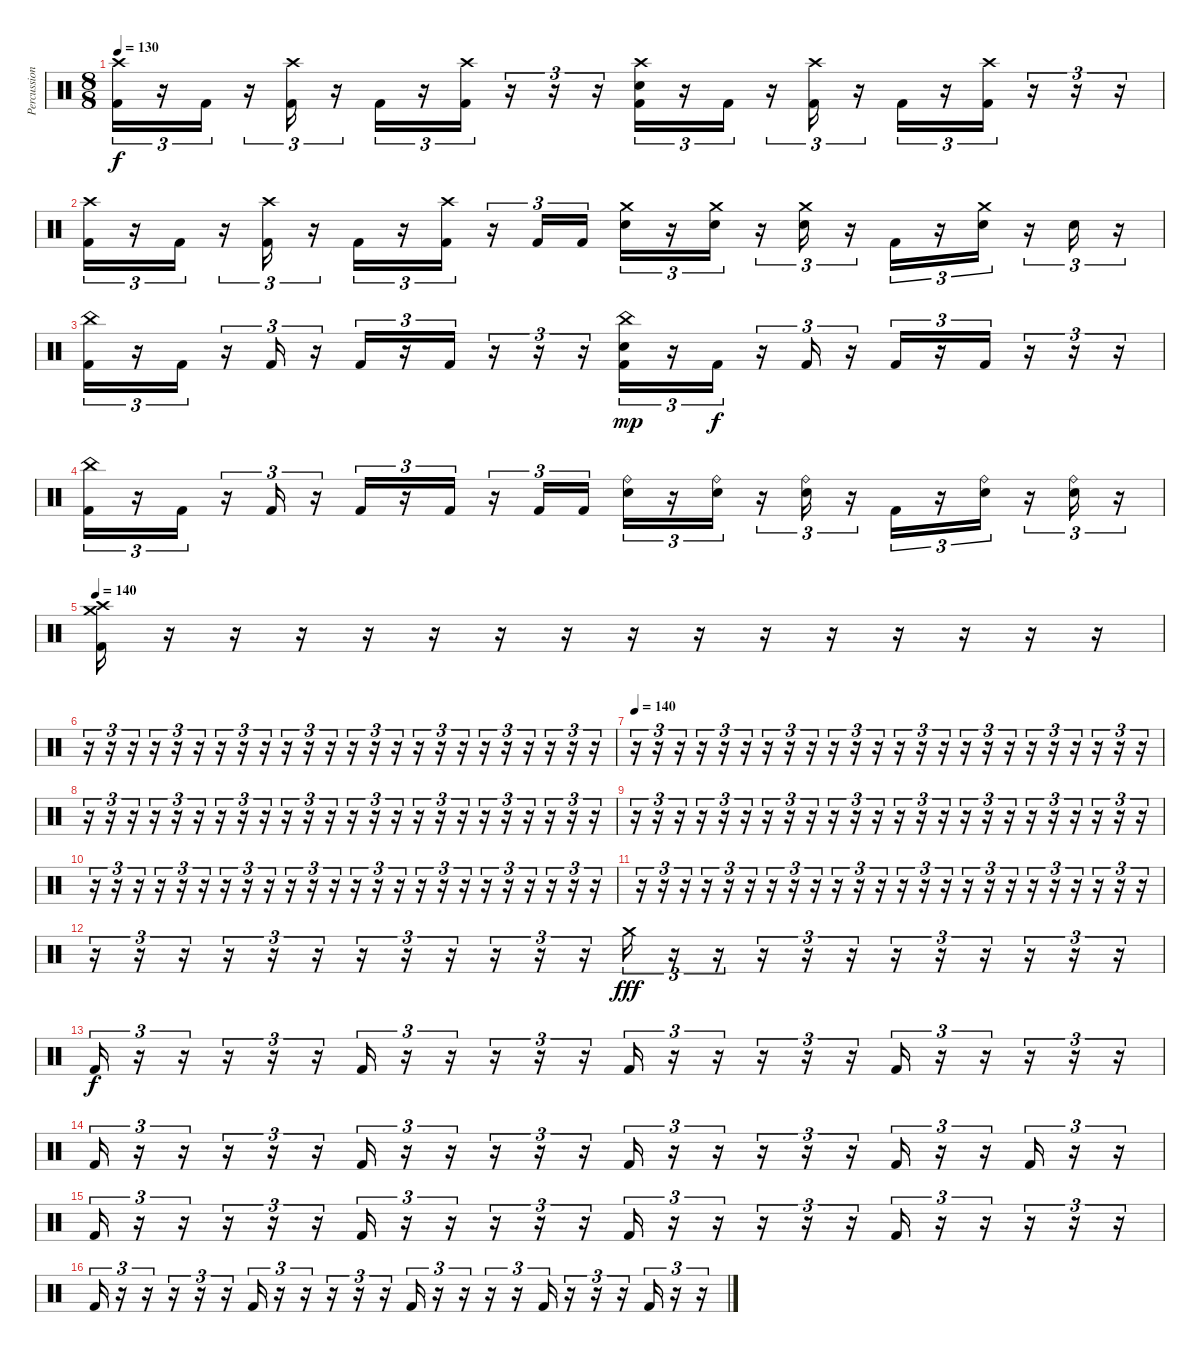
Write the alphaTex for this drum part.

\track ("Percussion" "Percussion") {instrument percussion}
\staff {score}
\articulation defaults
\ts (8 8)
\tempo 130
\clef neutral
\ks c
("Crash high (hit)" "Kick (hit) 2").16{tu (3 2) dy f} r.16{tu (3 2)} "Kick (hit) 2".16{tu (3 2)} r.16{tu (3 2)} ("Crash high (hit)" "Kick (hit) 2").16{tu (3 2)} r.16{tu (3 2)} "Kick (hit) 2".16{tu (3 2)} r.16{tu (3 2)} ("Crash high (hit)" "Kick (hit) 2").16{tu (3 2)} r.16{tu (3 2)} r.16{tu (3 2)} r.16{tu (3 2)} ("Crash high (hit)" "Snare (hit) 2" "Kick (hit) 2").16{tu (3 2)} r.16{tu (3 2)} "Kick (hit) 2".16{tu (3 2)} r.16{tu (3 2)} ("Crash high (hit)" "Kick (hit) 2").16{tu (3 2)} r.16{tu (3 2)} "Kick (hit) 2".16{tu (3 2)} r.16{tu (3 2)} ("Crash high (hit)" "Kick (hit) 2").16{tu (3 2)} r.16{tu (3 2)} r.16{tu (3 2)} r.16{tu (3 2)} |
("Crash high (hit)" "Kick (hit) 2").16{tu (3 2)} r.16{tu (3 2)} "Kick (hit) 2".16{tu (3 2)} r.16{tu (3 2)} ("Crash high (hit)" "Kick (hit) 2").16{tu (3 2)} r.16{tu (3 2)} "Kick (hit) 2".16{tu (3 2)} r.16{tu (3 2)} ("Crash high (hit)" "Kick (hit) 2").16{tu (3 2)} r.16{tu (3 2)} "Kick (hit) 2".16{tu (3 2)} "Kick (hit) 2".16{tu (3 2)} ("Crash medium (hit)" "Snare (hit) 2").16{tu (3 2)} r.16{tu (3 2)} ("Crash medium (hit)" "Snare (hit) 2").16{tu (3 2)} r.16{tu (3 2)} ("Crash medium (hit)" "Snare (hit) 2").16{tu (3 2)} r.16{tu (3 2)} "Kick (hit) 2".16{tu (3 2)} r.16{tu (3 2)} ("Crash medium (hit)" "Snare (hit) 2").16{tu (3 2)} r.16{tu (3 2)} "Snare (hit) 2".16{tu (3 2)} r.16{tu (3 2)} |
("China (hit)" "Kick (hit) 2").16{tu (3 2)} r.16{tu (3 2)} "Kick (hit) 2".16{tu (3 2)} r.16{tu (3 2)} "Kick (hit) 2".16{tu (3 2)} r.16{tu (3 2)} "Kick (hit) 2".16{tu (3 2)} r.16{tu (3 2)} "Kick (hit) 2".16{tu (3 2)} r.16{tu (3 2)} r.16{tu (3 2)} r.16{tu (3 2)} ("China (hit)" "Snare (hit) 2" "Kick (hit) 2").16{tu (3 2) dy mp} r.16{tu (3 2)} "Kick (hit) 2".16{tu (3 2) dy f} r.16{tu (3 2)} "Kick (hit) 2".16{tu (3 2)} r.16{tu (3 2)} "Kick (hit) 2".16{tu (3 2)} r.16{tu (3 2)} "Kick (hit) 2".16{tu (3 2)} r.16{tu (3 2)} r.16{tu (3 2)} r.16{tu (3 2)} |
("China (hit)" "Kick (hit) 2").16{tu (3 2)} r.16{tu (3 2)} "Kick (hit) 2".16{tu (3 2)} r.16{tu (3 2)} "Kick (hit) 2".16{tu (3 2)} r.16{tu (3 2)} "Kick (hit) 2".16{tu (3 2)} r.16{tu (3 2)} "Kick (hit) 2".16{tu (3 2)} r.16{tu (3 2)} "Kick (hit) 2".16{tu (3 2)} "Kick (hit) 2".16{tu (3 2)} ("Ride (bell)" "Snare (hit) 2").16{tu (3 2)} r.16{tu (3 2)} ("Ride (bell)" "Snare (hit) 2").16{tu (3 2)} r.16{tu (3 2)} ("Ride (bell)" "Snare (hit) 2").16{tu (3 2)} r.16{tu (3 2)} "Kick (hit) 2".16{tu (3 2)} r.16{tu (3 2)} ("Ride (bell)" "Snare (hit) 2").16{tu (3 2)} r.16{tu (3 2)} ("Ride (bell)" "Snare (hit) 2").16{tu (3 2)} r.16{tu (3 2)} |
\tempo 95
\tempo 140
("Crash high (hit)" "Crash medium (hit)" "Kick (hit) 2").16 r.16 r.16 r.16 r.16 r.16 r.16 r.16 r.16 r.16 r.16 r.16 r.16 r.16 r.16 r.16 |
r.16{tu (3 2)} r.16{tu (3 2)} r.16{tu (3 2)} r.16{tu (3 2)} r.16{tu (3 2)} r.16{tu (3 2)} r.16{tu (3 2)} r.16{tu (3 2)} r.16{tu (3 2)} r.16{tu (3 2)} r.16{tu (3 2)} r.16{tu (3 2)} r.16{tu (3 2)} r.16{tu (3 2)} r.16{tu (3 2)} r.16{tu (3 2)} r.16{tu (3 2)} r.16{tu (3 2)} r.16{tu (3 2)} r.16{tu (3 2)} r.16{tu (3 2)} r.16{tu (3 2)} r.16{tu (3 2)} r.16{tu (3 2)} |
\tempo 140
r.16{tu (3 2)} r.16{tu (3 2)} r.16{tu (3 2)} r.16{tu (3 2)} r.16{tu (3 2)} r.16{tu (3 2)} r.16{tu (3 2)} r.16{tu (3 2)} r.16{tu (3 2)} r.16{tu (3 2)} r.16{tu (3 2)} r.16{tu (3 2)} r.16{tu (3 2)} r.16{tu (3 2)} r.16{tu (3 2)} r.16{tu (3 2)} r.16{tu (3 2)} r.16{tu (3 2)} r.16{tu (3 2)} r.16{tu (3 2)} r.16{tu (3 2)} r.16{tu (3 2)} r.16{tu (3 2)} r.16{tu (3 2)} |
r.16{tu (3 2)} r.16{tu (3 2)} r.16{tu (3 2)} r.16{tu (3 2)} r.16{tu (3 2)} r.16{tu (3 2)} r.16{tu (3 2)} r.16{tu (3 2)} r.16{tu (3 2)} r.16{tu (3 2)} r.16{tu (3 2)} r.16{tu (3 2)} r.16{tu (3 2)} r.16{tu (3 2)} r.16{tu (3 2)} r.16{tu (3 2)} r.16{tu (3 2)} r.16{tu (3 2)} r.16{tu (3 2)} r.16{tu (3 2)} r.16{tu (3 2)} r.16{tu (3 2)} r.16{tu (3 2)} r.16{tu (3 2)} |
r.16{tu (3 2)} r.16{tu (3 2)} r.16{tu (3 2)} r.16{tu (3 2)} r.16{tu (3 2)} r.16{tu (3 2)} r.16{tu (3 2)} r.16{tu (3 2)} r.16{tu (3 2)} r.16{tu (3 2)} r.16{tu (3 2)} r.16{tu (3 2)} r.16{tu (3 2)} r.16{tu (3 2)} r.16{tu (3 2)} r.16{tu (3 2)} r.16{tu (3 2)} r.16{tu (3 2)} r.16{tu (3 2)} r.16{tu (3 2)} r.16{tu (3 2)} r.16{tu (3 2)} r.16{tu (3 2)} r.16{tu (3 2)} |
r.16{tu (3 2)} r.16{tu (3 2)} r.16{tu (3 2)} r.16{tu (3 2)} r.16{tu (3 2)} r.16{tu (3 2)} r.16{tu (3 2)} r.16{tu (3 2)} r.16{tu (3 2)} r.16{tu (3 2)} r.16{tu (3 2)} r.16{tu (3 2)} r.16{tu (3 2)} r.16{tu (3 2)} r.16{tu (3 2)} r.16{tu (3 2)} r.16{tu (3 2)} r.16{tu (3 2)} r.16{tu (3 2)} r.16{tu (3 2)} r.16{tu (3 2)} r.16{tu (3 2)} r.16{tu (3 2)} r.16{tu (3 2)} |
r.16{tu (3 2)} r.16{tu (3 2)} r.16{tu (3 2)} r.16{tu (3 2)} r.16{tu (3 2)} r.16{tu (3 2)} r.16{tu (3 2)} r.16{tu (3 2)} r.16{tu (3 2)} r.16{tu (3 2)} r.16{tu (3 2)} r.16{tu (3 2)} r.16{tu (3 2)} r.16{tu (3 2)} r.16{tu (3 2)} r.16{tu (3 2)} r.16{tu (3 2)} r.16{tu (3 2)} r.16{tu (3 2)} r.16{tu (3 2)} r.16{tu (3 2)} r.16{tu (3 2)} r.16{tu (3 2)} r.16{tu (3 2)} |
r.16{tu (3 2)} r.16{tu (3 2)} r.16{tu (3 2)} r.16{tu (3 2)} r.16{tu (3 2)} r.16{tu (3 2)} r.16{tu (3 2)} r.16{tu (3 2)} r.16{tu (3 2)} r.16{tu (3 2)} r.16{tu (3 2)} r.16{tu (3 2) volume 0} "Crash medium (hit)".16{tu (3 2) dy fff volume 16} r.16{tu (3 2)} r.16{tu (3 2)} r.16{tu (3 2)} r.16{tu (3 2)} r.16{tu (3 2)} r.16{tu (3 2)} r.16{tu (3 2)} r.16{tu (3 2)} r.16{tu (3 2)} r.16{tu (3 2)} r.16{tu (3 2)} |
"Kick (hit) 2".16{tu (3 2) dy f volume 13} r.16{tu (3 2)} r.16{tu (3 2)} r.16{tu (3 2)} r.16{tu (3 2)} r.16{tu (3 2)} "Kick (hit) 2".16{tu (3 2)} r.16{tu (3 2)} r.16{tu (3 2)} r.16{tu (3 2)} r.16{tu (3 2)} r.16{tu (3 2)} "Kick (hit) 2".16{tu (3 2)} r.16{tu (3 2)} r.16{tu (3 2)} r.16{tu (3 2)} r.16{tu (3 2)} r.16{tu (3 2)} "Kick (hit) 2".16{tu (3 2)} r.16{tu (3 2)} r.16{tu (3 2)} r.16{tu (3 2)} r.16{tu (3 2)} r.16{tu (3 2)} |
"Kick (hit) 2".16{tu (3 2)} r.16{tu (3 2)} r.16{tu (3 2)} r.16{tu (3 2)} r.16{tu (3 2)} r.16{tu (3 2)} "Kick (hit) 2".16{tu (3 2)} r.16{tu (3 2)} r.16{tu (3 2)} r.16{tu (3 2)} r.16{tu (3 2)} r.16{tu (3 2)} "Kick (hit) 2".16{tu (3 2)} r.16{tu (3 2)} r.16{tu (3 2)} r.16{tu (3 2)} r.16{tu (3 2)} r.16{tu (3 2)} "Kick (hit) 2".16{tu (3 2)} r.16{tu (3 2)} r.16{tu (3 2)} "Kick (hit) 2".16{tu (3 2)} r.16{tu (3 2)} r.16{tu (3 2)} |
"Kick (hit) 2".16{tu (3 2)} r.16{tu (3 2)} r.16{tu (3 2)} r.16{tu (3 2)} r.16{tu (3 2)} r.16{tu (3 2)} "Kick (hit) 2".16{tu (3 2)} r.16{tu (3 2)} r.16{tu (3 2)} r.16{tu (3 2)} r.16{tu (3 2)} r.16{tu (3 2)} "Kick (hit) 2".16{tu (3 2)} r.16{tu (3 2)} r.16{tu (3 2)} r.16{tu (3 2)} r.16{tu (3 2)} r.16{tu (3 2)} "Kick (hit) 2".16{tu (3 2)} r.16{tu (3 2)} r.16{tu (3 2)} r.16{tu (3 2)} r.16{tu (3 2)} r.16{tu (3 2)} |
"Kick (hit) 2".16{tu (3 2)} r.16{tu (3 2)} r.16{tu (3 2)} r.16{tu (3 2)} r.16{tu (3 2)} r.16{tu (3 2)} "Kick (hit) 2".16{tu (3 2)} r.16{tu (3 2)} r.16{tu (3 2)} r.16{tu (3 2)} r.16{tu (3 2)} r.16{tu (3 2)} "Kick (hit) 2".16{tu (3 2)} r.16{tu (3 2)} r.16{tu (3 2)} r.16{tu (3 2)} r.16{tu (3 2)} "Kick (hit) 2".16{tu (3 2)} r.16{tu (3 2)} r.16{tu (3 2)} r.16{tu (3 2)} "Kick (hit) 2".16{tu (3 2)} r.16{tu (3 2)} r.16{tu (3 2)}
